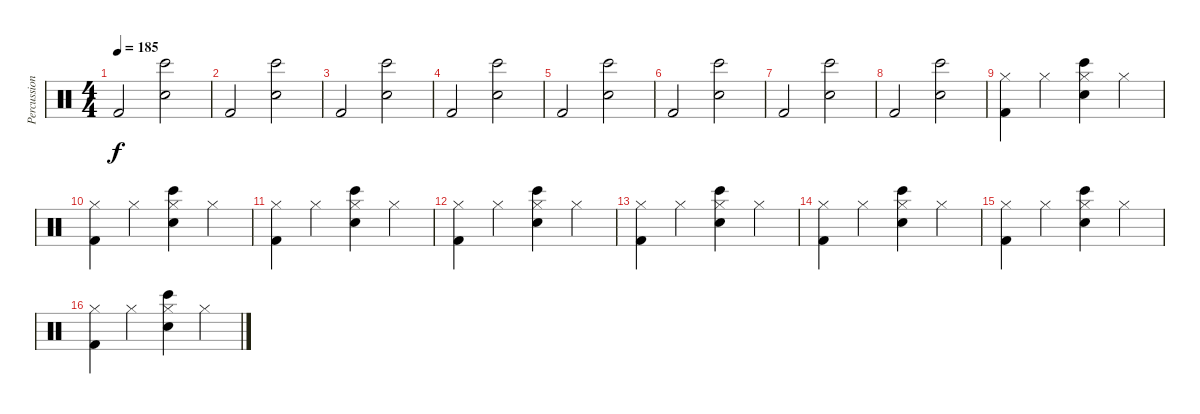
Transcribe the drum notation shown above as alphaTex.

\track ("Percussion" "Percussion") {instrument percussion}
\staff {score}
\articulation defaults
\ts (4 4)
\tempo 185
\clef neutral
\ks c "Kick (hit) 2".2{dy f}
("Bongo High (hit)" "Electric Snare (hit)").2 |
"Kick (hit) 2".2 ("Bongo High (hit)" "Electric Snare (hit)").2 |
"Kick (hit) 2".2 ("Bongo High (hit)" "Electric Snare (hit)").2 |
"Kick (hit) 2".2 ("Bongo High (hit)" "Electric Snare (hit)").2 |
"Kick (hit) 2".2 ("Bongo High (hit)" "Electric Snare (hit)").2 |
"Kick (hit) 2".2 ("Bongo High (hit)" "Electric Snare (hit)").2 |
"Kick (hit) 2".2 ("Bongo High (hit)" "Electric Snare (hit)").2 |
"Kick (hit) 2".2 ("Bongo High (hit)" "Electric Snare (hit)").2 |
("Hi-Hat (closed)" "Kick (hit) 2").4 "Hi-Hat (closed)".4 ("Bongo High (hit)" "Electric Snare (hit)" "Hi-Hat (closed)").4 "Hi-Hat (closed)".4 |
("Hi-Hat (closed)" "Kick (hit) 2").4 "Hi-Hat (closed)".4 ("Bongo High (hit)" "Electric Snare (hit)" "Hi-Hat (closed)").4 "Hi-Hat (closed)".4 |
("Hi-Hat (closed)" "Kick (hit) 2").4 "Hi-Hat (closed)".4 ("Bongo High (hit)" "Electric Snare (hit)" "Hi-Hat (closed)").4 "Hi-Hat (closed)".4 |
("Hi-Hat (closed)" "Kick (hit) 2").4 "Hi-Hat (closed)".4 ("Bongo High (hit)" "Electric Snare (hit)" "Hi-Hat (closed)").4 "Hi-Hat (closed)".4 |
("Hi-Hat (closed)" "Kick (hit) 2").4 "Hi-Hat (closed)".4 ("Bongo High (hit)" "Electric Snare (hit)" "Hi-Hat (closed)").4 "Hi-Hat (closed)".4 |
("Hi-Hat (closed)" "Kick (hit) 2").4 "Hi-Hat (closed)".4 ("Bongo High (hit)" "Electric Snare (hit)" "Hi-Hat (closed)").4 "Hi-Hat (closed)".4 |
("Hi-Hat (closed)" "Kick (hit) 2").4 "Hi-Hat (closed)".4 ("Bongo High (hit)" "Electric Snare (hit)" "Hi-Hat (closed)").4 "Hi-Hat (closed)".4 |
("Hi-Hat (closed)" "Kick (hit) 2").4 "Hi-Hat (closed)".4 ("Bongo High (hit)" "Electric Snare (hit)" "Hi-Hat (closed)").4 "Hi-Hat (closed)".4
